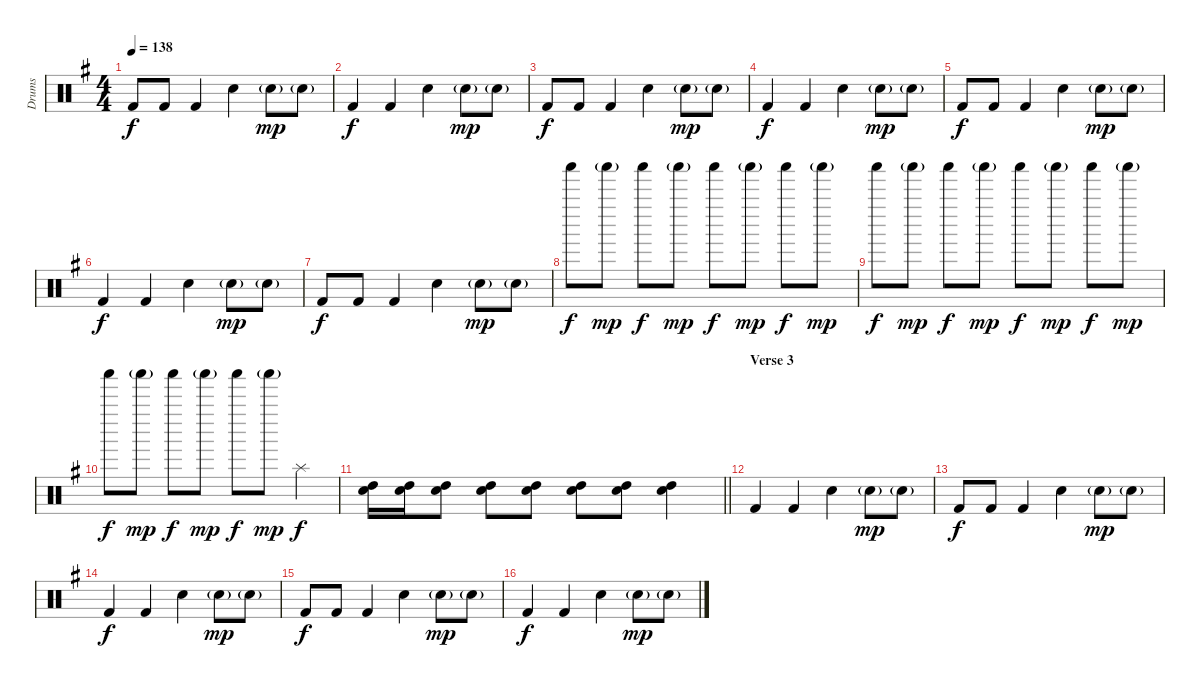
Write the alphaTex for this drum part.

\track ("Drums" "Drums") {instrument percussion}
\staff {score}
\articulation defaults
\ts (4 4)
\tempo 138
\clef neutral
\ks g "Kick (hit) 2".8{dy f} "Kick (hit) 2".8 "Kick (hit) 2".4 "Snare (hit) 2".4 "Snare (hit) 2"{g}.8{dy mp} "Snare (hit) 2"{g}.8
|
"Kick (hit) 2".4{dy f} "Kick (hit) 2".4 "Snare (hit) 2".4 "Snare (hit) 2"{g}.8{dy mp} "Snare (hit) 2"{g}.8 |
"Kick (hit) 2".8{dy f} "Kick (hit) 2".8 "Kick (hit) 2".4 "Snare (hit) 2".4 "Snare (hit) 2"{g}.8{dy mp} "Snare (hit) 2"{g}.8 |
"Kick (hit) 2".4{dy f} "Kick (hit) 2".4 "Snare (hit) 2".4 "Snare (hit) 2"{g}.8{dy mp} "Snare (hit) 2"{g}.8 |
"Kick (hit) 2".8{dy f} "Kick (hit) 2".8 "Kick (hit) 2".4 "Snare (hit) 2".4 "Snare (hit) 2"{g}.8{dy mp} "Snare (hit) 2"{g}.8 |
"Kick (hit) 2".4{dy f} "Kick (hit) 2".4 "Snare (hit) 2".4 "Snare (hit) 2"{g}.8{dy mp} "Snare (hit) 2"{g}.8 |
"Kick (hit) 2".8{dy f} "Kick (hit) 2".8 "Kick (hit) 2".4 "Snare (hit) 2".4 "Snare (hit) 2"{g}.8{dy mp} "Snare (hit) 2"{g}.8 |
"Shaker (hit)".8{dy f} "Shaker (hit)"{g}.8{dy mp} "Shaker (hit)".8{dy f} "Shaker (hit)"{g}.8{dy mp} "Shaker (hit)".8{dy f} "Shaker (hit)"{g}.8{dy mp} "Shaker (hit)".8{dy f} "Shaker (hit)"{g}.8{dy mp} |
"Shaker (hit)".8{dy f} "Shaker (hit)"{g}.8{dy mp} "Shaker (hit)".8{dy f} "Shaker (hit)"{g}.8{dy mp} "Shaker (hit)".8{dy f} "Shaker (hit)"{g}.8{dy mp} "Shaker (hit)".8{dy f} "Shaker (hit)"{g}.8{dy mp} |
"Shaker (hit)".8{dy f} "Shaker (hit)"{g}.8{dy mp} "Shaker (hit)".8{dy f} "Shaker (hit)"{g}.8{dy mp} "Shaker (hit)".8{dy f} "Shaker (hit)"{g}.8{dy mp} "Splash (hit)".4{dy f volume 16} |
\barLineRight lightlight
("Snare (hit) 2" "High Tom (hit)").16 ("Snare (hit) 2" "High Tom (hit)").16 ("Snare (hit) 2" "High Tom (hit)").8 ("Snare (hit) 2" "High Tom (hit)").8 ("Snare (hit) 2" "High Tom (hit)").8 ("Snare (hit) 2" "High Tom (hit)").8 ("Snare (hit) 2" "High Tom (hit)").8 ("Snare (hit) 2" "High Tom (hit)").4 |
\section ("" "Verse 3")
"Kick (hit) 2".4 "Kick (hit) 2".4 "Snare (hit) 2".4 "Snare (hit) 2"{g}.8{dy mp} "Snare (hit) 2"{g}.8 |
"Kick (hit) 2".8{dy f} "Kick (hit) 2".8 "Kick (hit) 2".4 "Snare (hit) 2".4 "Snare (hit) 2"{g}.8{dy mp} "Snare (hit) 2"{g}.8 |
"Kick (hit) 2".4{dy f} "Kick (hit) 2".4 "Snare (hit) 2".4 "Snare (hit) 2"{g}.8{dy mp} "Snare (hit) 2"{g}.8 |
"Kick (hit) 2".8{dy f} "Kick (hit) 2".8 "Kick (hit) 2".4 "Snare (hit) 2".4 "Snare (hit) 2"{g}.8{dy mp} "Snare (hit) 2"{g}.8 |
"Kick (hit) 2".4{dy f} "Kick (hit) 2".4 "Snare (hit) 2".4 "Snare (hit) 2"{g}.8{dy mp} "Snare (hit) 2"{g}.8
